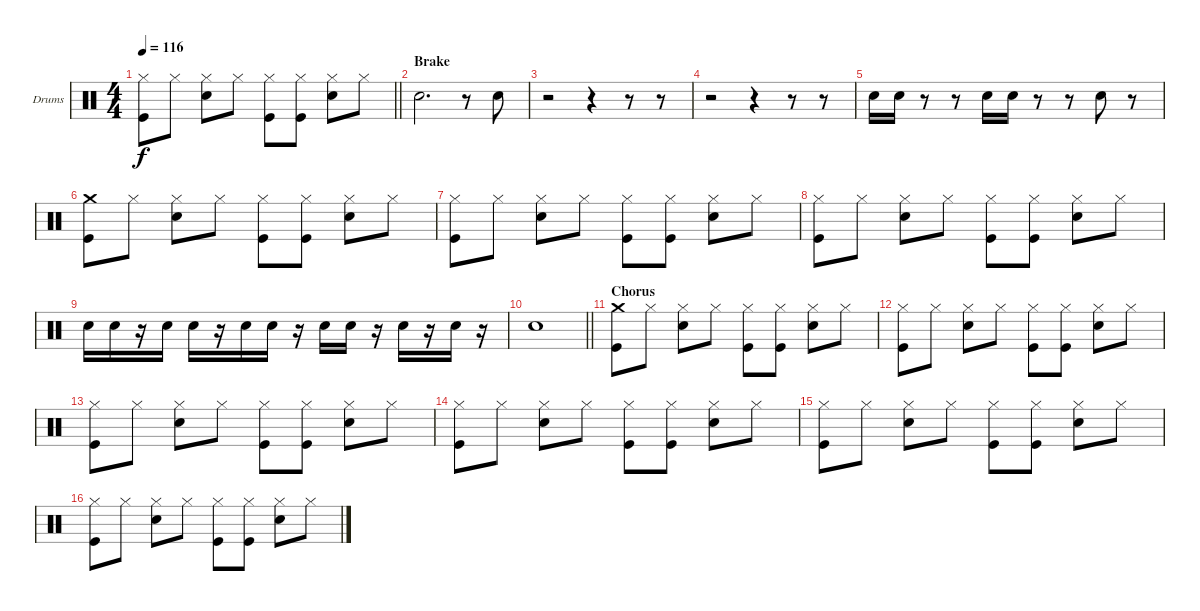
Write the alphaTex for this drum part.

\bracketExtendMode groupsimilarinstruments
\firstSystemTrackNameOrientation horizontal
\otherSystemsTrackNameOrientation horizontal
\track ("Drumkit" "Drums") {instrument percussion}
\staff {score}
\articulation defaults
\ts (4 4)
\tempo 116
\clef neutral
\barLineRight lightlight
\ks c
("Hi-Hat (closed)" "Kick (hit)").8{dy f} "Hi-Hat (closed)".8 ("Hi-Hat (closed)" "Snare (hit) 2").8 "Hi-Hat (closed)".8 ("Hi-Hat (closed)" "Kick (hit)").8 ("Hi-Hat (closed)" "Kick (hit)").8 ("Hi-Hat (closed)" "Snare (hit) 2").8 "Hi-Hat (closed)".8 |
\section ("" "Brake")
"Snare (hit) 2".2{d} r.8 "Snare (hit) 2".8 |
r.2 r.4 r.8 r.8 |
r.2 r.4 r.8 r.8 |
"Snare (hit) 2".16 "Snare (hit) 2".16 r.8 r.8 "Snare (hit) 2".16 "Snare (hit) 2".16 r.8 r.8 "Snare (hit) 2".8 r.8 |
("Crash medium (hit)" "Kick (hit)").8 "Hi-Hat (closed)".8 ("Hi-Hat (closed)" "Snare (hit) 2").8 "Hi-Hat (closed)".8 ("Hi-Hat (closed)" "Kick (hit)").8 ("Hi-Hat (closed)" "Kick (hit)").8 ("Hi-Hat (closed)" "Snare (hit) 2").8 "Hi-Hat (closed)".8 |
("Hi-Hat (closed)" "Kick (hit)").8 "Hi-Hat (closed)".8 ("Hi-Hat (closed)" "Snare (hit) 2").8 "Hi-Hat (closed)".8 ("Hi-Hat (closed)" "Kick (hit)").8 ("Hi-Hat (closed)" "Kick (hit)").8 ("Hi-Hat (closed)" "Snare (hit) 2").8 "Hi-Hat (closed)".8 |
("Hi-Hat (closed)" "Kick (hit)").8 "Hi-Hat (closed)".8 ("Hi-Hat (closed)" "Snare (hit) 2").8 "Hi-Hat (closed)".8 ("Hi-Hat (closed)" "Kick (hit)").8 ("Hi-Hat (closed)" "Kick (hit)").8 ("Hi-Hat (closed)" "Snare (hit) 2").8 "Hi-Hat (closed)".8 |
"Snare (hit) 2".16 "Snare (hit) 2".16 r.16 "Snare (hit) 2".16 "Snare (hit) 2".16 r.16 "Snare (hit) 2".16 "Snare (hit) 2".16 r.16 "Snare (hit) 2".16 "Snare (hit) 2".16 r.16 "Snare (hit) 2".16 r.16 "Snare (hit) 2".16 r.16 |
\barLineRight lightlight "Snare (hit) 2".1
|
\section ("" "Chorus")
("Crash medium (hit)" "Kick (hit)").8 "Hi-Hat (closed)".8 ("Hi-Hat (closed)" "Snare (hit) 2").8 "Hi-Hat (closed)".8 ("Hi-Hat (closed)" "Kick (hit)").8 ("Hi-Hat (closed)" "Kick (hit)").8 ("Hi-Hat (closed)" "Snare (hit) 2").8 "Hi-Hat (closed)".8 |
("Hi-Hat (closed)" "Kick (hit)").8 "Hi-Hat (closed)".8 ("Hi-Hat (closed)" "Snare (hit) 2").8 "Hi-Hat (closed)".8 ("Hi-Hat (closed)" "Kick (hit)").8 ("Hi-Hat (closed)" "Kick (hit)").8 ("Hi-Hat (closed)" "Snare (hit) 2").8 "Hi-Hat (closed)".8 |
("Hi-Hat (closed)" "Kick (hit)").8 "Hi-Hat (closed)".8 ("Hi-Hat (closed)" "Snare (hit) 2").8 "Hi-Hat (closed)".8 ("Hi-Hat (closed)" "Kick (hit)").8 ("Hi-Hat (closed)" "Kick (hit)").8 ("Hi-Hat (closed)" "Snare (hit) 2").8 "Hi-Hat (closed)".8 |
("Hi-Hat (closed)" "Kick (hit)").8 "Hi-Hat (closed)".8 ("Hi-Hat (closed)" "Snare (hit) 2").8 "Hi-Hat (closed)".8 ("Hi-Hat (closed)" "Kick (hit)").8 ("Hi-Hat (closed)" "Kick (hit)").8 ("Hi-Hat (closed)" "Snare (hit) 2").8 "Hi-Hat (closed)".8 |
("Hi-Hat (closed)" "Kick (hit)").8 "Hi-Hat (closed)".8 ("Hi-Hat (closed)" "Snare (hit) 2").8 "Hi-Hat (closed)".8 ("Hi-Hat (closed)" "Kick (hit)").8 ("Hi-Hat (closed)" "Kick (hit)").8 ("Hi-Hat (closed)" "Snare (hit) 2").8 "Hi-Hat (closed)".8 |
("Hi-Hat (closed)" "Kick (hit)").8 "Hi-Hat (closed)".8 ("Hi-Hat (closed)" "Snare (hit) 2").8 "Hi-Hat (closed)".8 ("Hi-Hat (closed)" "Kick (hit)").8 ("Hi-Hat (closed)" "Kick (hit)").8 ("Hi-Hat (closed)" "Snare (hit) 2").8 "Hi-Hat (closed)".8
